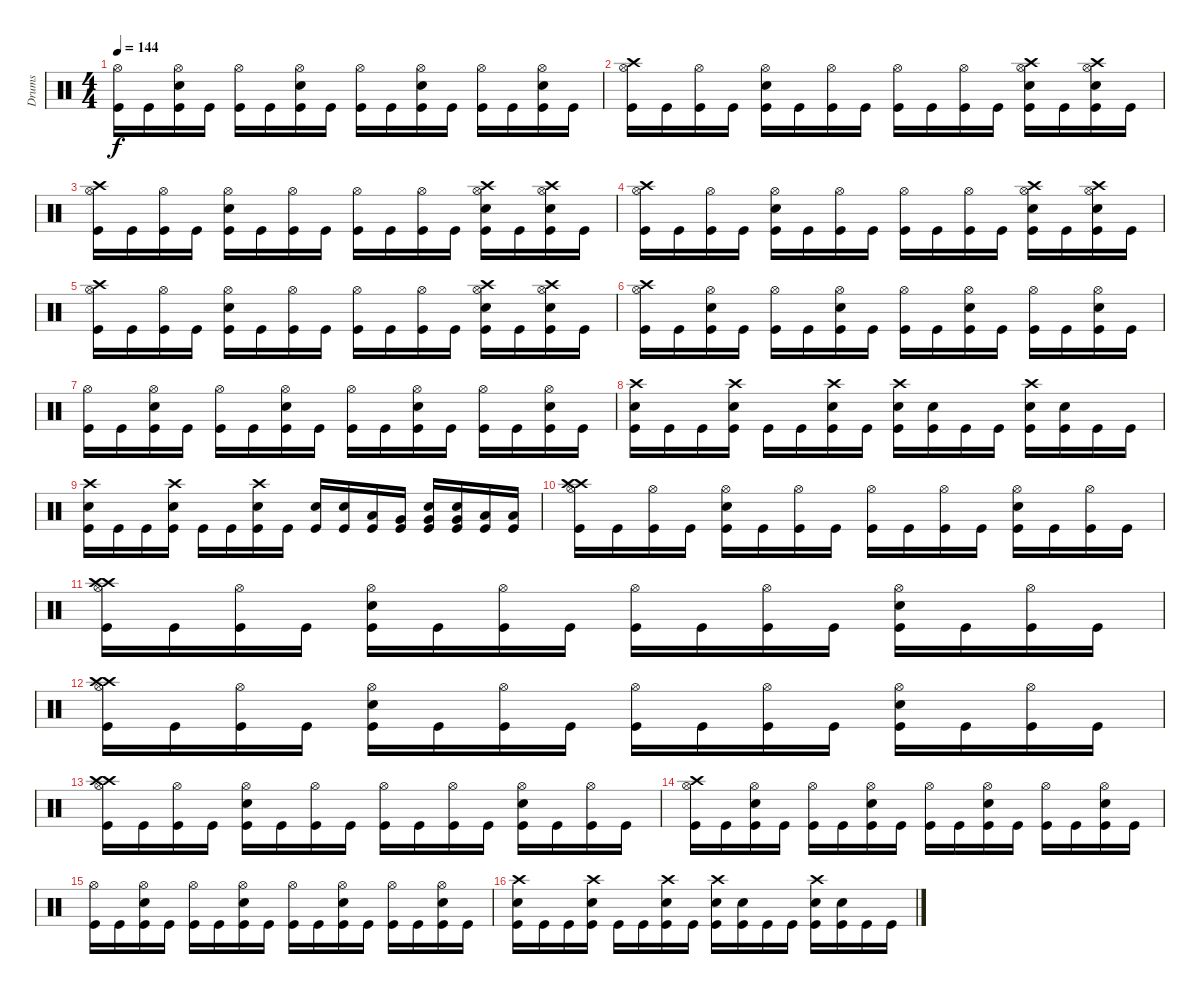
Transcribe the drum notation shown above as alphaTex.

\track ("Drums" "Drums") {instrument percussion}
\staff {score}
\articulation defaults
\ts (4 4)
\tempo 144
\clef neutral
\ks c
("Hi-Hat (open)" "Kick (hit)").16{dy f} "Kick (hit)".16 ("Kick (hit)" "Hi-Hat (open)" "Electric Snare (hit)").16 "Kick (hit)".16 ("Kick (hit)" "Hi-Hat (open)").16 "Kick (hit)".16 ("Kick (hit)" "Hi-Hat (open)" "Electric Snare (hit)").16 "Kick (hit)".16 ("Hi-Hat (open)" "Kick (hit)").16 "Kick (hit)".16 ("Kick (hit)" "Hi-Hat (open)" "Electric Snare (hit)").16 "Kick (hit)".16 ("Kick (hit)" "Hi-Hat (open)").16 "Kick (hit)".16 ("Kick (hit)" "Hi-Hat (open)" "Electric Snare (hit)").16 "Kick (hit)".16 |
("Crash high (hit)" "Hi-Hat (open)" "Kick (hit)").16 "Kick (hit)".16 ("Kick (hit)" "Hi-Hat (open)").16 "Kick (hit)".16 ("Electric Snare (hit)" "Kick (hit)" "Hi-Hat (open)").16 "Kick (hit)".16 ("Kick (hit)" "Hi-Hat (open)").16 "Kick (hit)".16 ("Hi-Hat (open)" "Kick (hit)").16 "Kick (hit)".16 ("Kick (hit)" "Hi-Hat (open)").16 "Kick (hit)".16 ("Crash high (hit)" "Electric Snare (hit)" "Kick (hit)" "Hi-Hat (open)").16 "Kick (hit)".16 ("Crash high (hit)" "Electric Snare (hit)" "Kick (hit)" "Hi-Hat (open)").16 "Kick (hit)".16 |
("Crash high (hit)" "Hi-Hat (open)" "Kick (hit)").16 "Kick (hit)".16 ("Kick (hit)" "Hi-Hat (open)").16 "Kick (hit)".16 ("Electric Snare (hit)" "Kick (hit)" "Hi-Hat (open)").16 "Kick (hit)".16 ("Kick (hit)" "Hi-Hat (open)").16 "Kick (hit)".16 ("Hi-Hat (open)" "Kick (hit)").16 "Kick (hit)".16 ("Kick (hit)" "Hi-Hat (open)").16 "Kick (hit)".16 ("Crash high (hit)" "Electric Snare (hit)" "Kick (hit)" "Hi-Hat (open)").16 "Kick (hit)".16 ("Crash high (hit)" "Electric Snare (hit)" "Kick (hit)" "Hi-Hat (open)").16 "Kick (hit)".16 |
("Crash high (hit)" "Hi-Hat (open)" "Kick (hit)").16 "Kick (hit)".16 ("Kick (hit)" "Hi-Hat (open)").16 "Kick (hit)".16 ("Electric Snare (hit)" "Kick (hit)" "Hi-Hat (open)").16 "Kick (hit)".16 ("Kick (hit)" "Hi-Hat (open)").16 "Kick (hit)".16 ("Hi-Hat (open)" "Kick (hit)").16 "Kick (hit)".16 ("Kick (hit)" "Hi-Hat (open)").16 "Kick (hit)".16 ("Crash high (hit)" "Electric Snare (hit)" "Kick (hit)" "Hi-Hat (open)").16 "Kick (hit)".16 ("Crash high (hit)" "Electric Snare (hit)" "Kick (hit)" "Hi-Hat (open)").16 "Kick (hit)".16 |
("Crash high (hit)" "Hi-Hat (open)" "Kick (hit)").16 "Kick (hit)".16 ("Kick (hit)" "Hi-Hat (open)").16 "Kick (hit)".16 ("Electric Snare (hit)" "Kick (hit)" "Hi-Hat (open)").16 "Kick (hit)".16 ("Kick (hit)" "Hi-Hat (open)").16 "Kick (hit)".16 ("Hi-Hat (open)" "Kick (hit)").16 "Kick (hit)".16 ("Kick (hit)" "Hi-Hat (open)").16 "Kick (hit)".16 ("Crash high (hit)" "Electric Snare (hit)" "Kick (hit)" "Hi-Hat (open)").16 "Kick (hit)".16 ("Crash high (hit)" "Electric Snare (hit)" "Kick (hit)" "Hi-Hat (open)").16 "Kick (hit)".16 |
("Hi-Hat (open)" "Crash high (hit)" "Kick (hit)").16 "Kick (hit)".16 ("Kick (hit)" "Hi-Hat (open)" "Electric Snare (hit)").16 "Kick (hit)".16 ("Kick (hit)" "Hi-Hat (open)").16 "Kick (hit)".16 ("Kick (hit)" "Hi-Hat (open)" "Electric Snare (hit)").16 "Kick (hit)".16 ("Hi-Hat (open)" "Kick (hit)").16 "Kick (hit)".16 ("Kick (hit)" "Hi-Hat (open)" "Electric Snare (hit)").16 "Kick (hit)".16 ("Kick (hit)" "Hi-Hat (open)").16 "Kick (hit)".16 ("Kick (hit)" "Hi-Hat (open)" "Electric Snare (hit)").16 "Kick (hit)".16 |
("Hi-Hat (open)" "Kick (hit)").16 "Kick (hit)".16 ("Kick (hit)" "Hi-Hat (open)" "Electric Snare (hit)").16 "Kick (hit)".16 ("Kick (hit)" "Hi-Hat (open)").16 "Kick (hit)".16 ("Kick (hit)" "Hi-Hat (open)" "Electric Snare (hit)").16 "Kick (hit)".16 ("Hi-Hat (open)" "Kick (hit)").16 "Kick (hit)".16 ("Kick (hit)" "Hi-Hat (open)" "Electric Snare (hit)").16 "Kick (hit)".16 ("Kick (hit)" "Hi-Hat (open)").16 "Kick (hit)".16 ("Kick (hit)" "Hi-Hat (open)" "Electric Snare (hit)").16 "Kick (hit)".16 |
("Crash high (hit)" "Electric Snare (hit)" "Kick (hit)").16 "Kick (hit)".16 "Kick (hit)".16 ("Crash high (hit)" "Electric Snare (hit)" "Kick (hit)").16 "Kick (hit)".16 "Kick (hit)".16 ("Crash high (hit)" "Electric Snare (hit)" "Kick (hit)").16 "Kick (hit)".16 ("Crash high (hit)" "Electric Snare (hit)" "Kick (hit)").16 ("Electric Snare (hit)" "Kick (hit)").16 "Kick (hit)".16 "Kick (hit)".16 ("Crash high (hit)" "Electric Snare (hit)" "Kick (hit)").16 ("Electric Snare (hit)" "Kick (hit)").16 "Kick (hit)".16 "Kick (hit)".16 |
("Crash high (hit)" "Electric Snare (hit)" "Kick (hit)").16 "Kick (hit)".16 "Kick (hit)".16 ("Crash high (hit)" "Electric Snare (hit)" "Kick (hit)").16 "Kick (hit)".16 "Kick (hit)".16 ("Crash high (hit)" "Electric Snare (hit)" "Kick (hit)").16 "Kick (hit)".16 ("Electric Snare (hit)" "Kick (hit)").16 ("Electric Snare (hit)" "Kick (hit)").16 ("Low Tom (hit)" "Kick (hit)").16 ("Very Low Tom (hit)" "Kick (hit)").16 ("Very Low Tom (hit)" "Electric Snare (hit)" "Kick (hit)").16 ("Very Low Tom (hit)" "Electric Snare (hit)" "Kick (hit)").16 ("Low Floor Tom (hit)" "Kick (hit)").16 ("Low Floor Tom (hit)" "Kick (hit)").16 |
("Crash high (hit)" "Hi-Hat (open)" "Crash high (hit)" "Kick (hit)").16 "Kick (hit)".16 ("Kick (hit)" "Hi-Hat (open)").16 "Kick (hit)".16 ("Electric Snare (hit)" "Kick (hit)" "Hi-Hat (open)").16 "Kick (hit)".16 ("Kick (hit)" "Hi-Hat (open)").16 "Kick (hit)".16 ("Hi-Hat (open)" "Kick (hit)").16 "Kick (hit)".16 ("Kick (hit)" "Hi-Hat (open)").16 "Kick (hit)".16 ("Electric Snare (hit)" "Kick (hit)" "Hi-Hat (open)").16 "Kick (hit)".16 ("Kick (hit)" "Hi-Hat (open)").16 "Kick (hit)".16 |
("Crash high (hit)" "Hi-Hat (open)" "Crash high (hit)" "Kick (hit)").16 "Kick (hit)".16 ("Kick (hit)" "Hi-Hat (open)").16 "Kick (hit)".16 ("Electric Snare (hit)" "Kick (hit)" "Hi-Hat (open)").16 "Kick (hit)".16 ("Kick (hit)" "Hi-Hat (open)").16 "Kick (hit)".16 ("Hi-Hat (open)" "Kick (hit)").16 "Kick (hit)".16 ("Kick (hit)" "Hi-Hat (open)").16 "Kick (hit)".16 ("Electric Snare (hit)" "Kick (hit)" "Hi-Hat (open)").16 "Kick (hit)".16 ("Kick (hit)" "Hi-Hat (open)").16 "Kick (hit)".16 |
("Crash high (hit)" "Hi-Hat (open)" "Crash high (hit)" "Kick (hit)").16 "Kick (hit)".16 ("Kick (hit)" "Hi-Hat (open)").16 "Kick (hit)".16 ("Electric Snare (hit)" "Kick (hit)" "Hi-Hat (open)").16 "Kick (hit)".16 ("Kick (hit)" "Hi-Hat (open)").16 "Kick (hit)".16 ("Hi-Hat (open)" "Kick (hit)").16 "Kick (hit)".16 ("Kick (hit)" "Hi-Hat (open)").16 "Kick (hit)".16 ("Electric Snare (hit)" "Kick (hit)" "Hi-Hat (open)").16 "Kick (hit)".16 ("Kick (hit)" "Hi-Hat (open)").16 "Kick (hit)".16 |
("Crash high (hit)" "Hi-Hat (open)" "Crash high (hit)" "Kick (hit)").16 "Kick (hit)".16 ("Kick (hit)" "Hi-Hat (open)").16 "Kick (hit)".16 ("Electric Snare (hit)" "Kick (hit)" "Hi-Hat (open)").16 "Kick (hit)".16 ("Kick (hit)" "Hi-Hat (open)").16 "Kick (hit)".16 ("Hi-Hat (open)" "Kick (hit)").16 "Kick (hit)".16 ("Kick (hit)" "Hi-Hat (open)").16 "Kick (hit)".16 ("Electric Snare (hit)" "Kick (hit)" "Hi-Hat (open)").16 "Kick (hit)".16 ("Kick (hit)" "Hi-Hat (open)").16 "Kick (hit)".16 |
("Hi-Hat (open)" "Crash high (hit)" "Kick (hit)").16 "Kick (hit)".16 ("Kick (hit)" "Hi-Hat (open)" "Electric Snare (hit)").16 "Kick (hit)".16 ("Kick (hit)" "Hi-Hat (open)").16 "Kick (hit)".16 ("Kick (hit)" "Hi-Hat (open)" "Electric Snare (hit)").16 "Kick (hit)".16 ("Hi-Hat (open)" "Kick (hit)").16 "Kick (hit)".16 ("Kick (hit)" "Hi-Hat (open)" "Electric Snare (hit)").16 "Kick (hit)".16 ("Kick (hit)" "Hi-Hat (open)").16 "Kick (hit)".16 ("Kick (hit)" "Hi-Hat (open)" "Electric Snare (hit)").16 "Kick (hit)".16 |
("Hi-Hat (open)" "Kick (hit)").16 "Kick (hit)".16 ("Kick (hit)" "Hi-Hat (open)" "Electric Snare (hit)").16 "Kick (hit)".16 ("Kick (hit)" "Hi-Hat (open)").16 "Kick (hit)".16 ("Kick (hit)" "Hi-Hat (open)" "Electric Snare (hit)").16 "Kick (hit)".16 ("Hi-Hat (open)" "Kick (hit)").16 "Kick (hit)".16 ("Kick (hit)" "Hi-Hat (open)" "Electric Snare (hit)").16 "Kick (hit)".16 ("Kick (hit)" "Hi-Hat (open)").16 "Kick (hit)".16 ("Kick (hit)" "Hi-Hat (open)" "Electric Snare (hit)").16 "Kick (hit)".16 |
("Crash high (hit)" "Electric Snare (hit)" "Kick (hit)").16 "Kick (hit)".16 "Kick (hit)".16 ("Crash high (hit)" "Electric Snare (hit)" "Kick (hit)").16 "Kick (hit)".16 "Kick (hit)".16 ("Crash high (hit)" "Electric Snare (hit)" "Kick (hit)").16 "Kick (hit)".16 ("Crash high (hit)" "Electric Snare (hit)" "Kick (hit)").16 ("Electric Snare (hit)" "Kick (hit)").16 "Kick (hit)".16 "Kick (hit)".16 ("Crash high (hit)" "Electric Snare (hit)" "Kick (hit)").16 ("Electric Snare (hit)" "Kick (hit)").16 "Kick (hit)".16 "Kick (hit)".16
